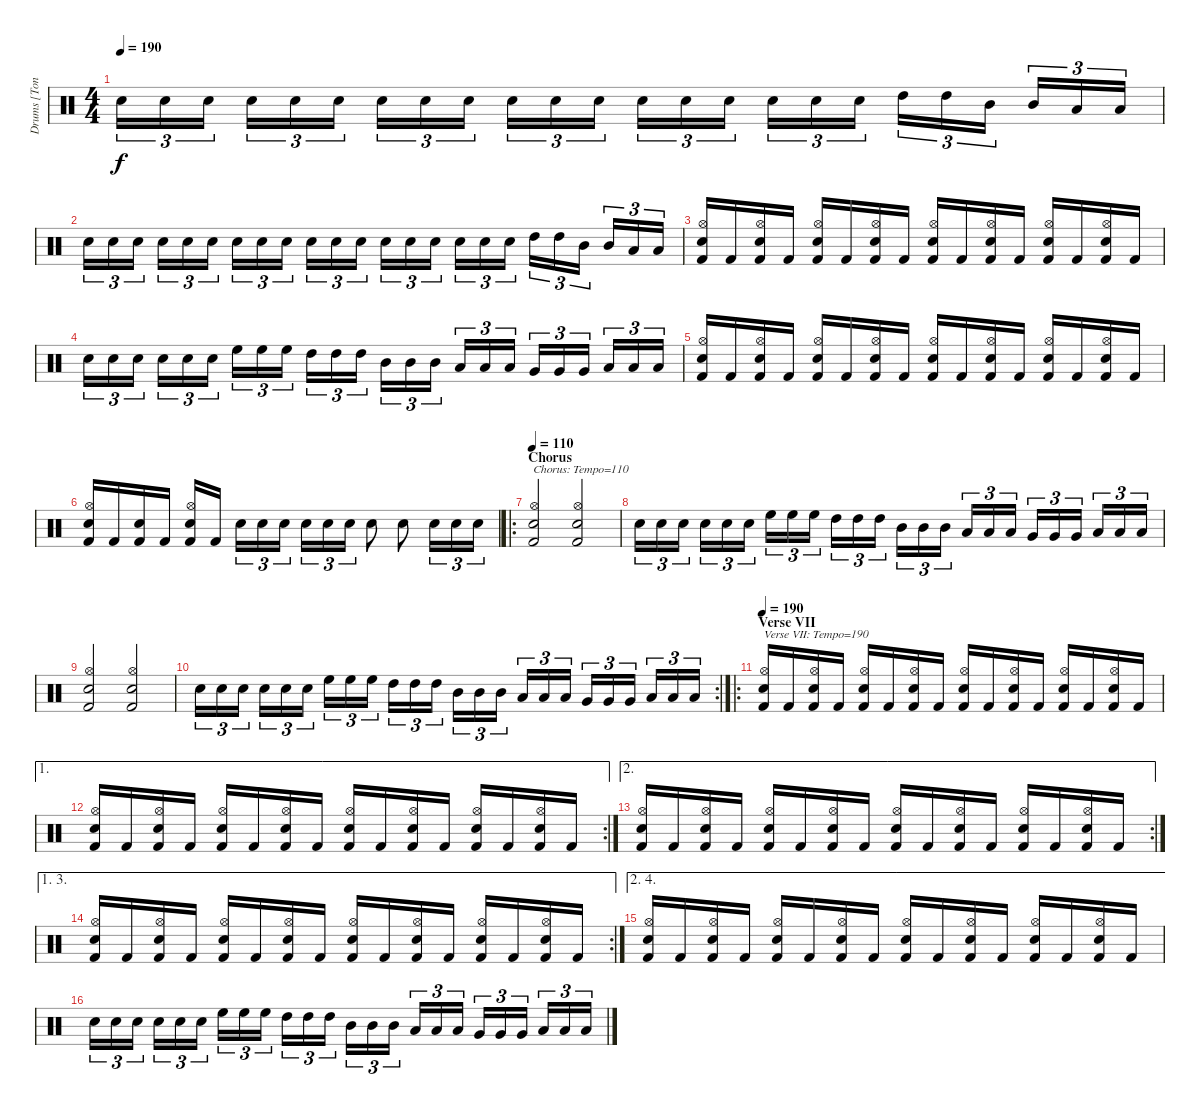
\track ("Drums [Tony Laureano]" "Drums [Ton") {instrument percussion}
\staff {score}
\articulation defaults
\ts (4 4)
\tempo 190
\clef neutral
\ks c "Electric Snare (hit)".16{tu (3 2) dy f} "Electric Snare (hit)".16{tu (3 2)} "Electric Snare (hit)".16{tu (3 2)} "Electric Snare (hit)".16{tu (3 2)} "Electric Snare (hit)".16{tu (3 2)} "Electric Snare (hit)".16{tu (3 2)} "Electric Snare (hit)".16{tu (3 2)} "Electric Snare (hit)".16{tu (3 2)} "Electric Snare (hit)".16{tu (3 2)} "Electric Snare (hit)".16{tu (3 2)} "Electric Snare (hit)".16{tu (3 2)} "Electric Snare (hit)".16{tu (3 2)} "Electric Snare (hit)".16{tu (3 2)} "Electric Snare (hit)".16{tu (3 2)} "Electric Snare (hit)".16{tu (3 2)} "Electric Snare (hit)".16{tu (3 2)} "Electric Snare (hit)".16{tu (3 2)} "Electric Snare (hit)".16{tu (3 2)} "High Tom (hit)".16{tu (3 2)} "High Tom (hit)".16{tu (3 2)} "Mid Tom (hit)".16{tu (3 2)} "Mid Tom (hit)".16{tu (3 2)} "Low Tom (hit)".16{tu (3 2)} "Low Tom (hit)".16{tu (3 2)}
|
"Electric Snare (hit)".16{tu (3 2)} "Electric Snare (hit)".16{tu (3 2)} "Electric Snare (hit)".16{tu (3 2)} "Electric Snare (hit)".16{tu (3 2)} "Electric Snare (hit)".16{tu (3 2)} "Electric Snare (hit)".16{tu (3 2)} "Electric Snare (hit)".16{tu (3 2)} "Electric Snare (hit)".16{tu (3 2)} "Electric Snare (hit)".16{tu (3 2)} "Electric Snare (hit)".16{tu (3 2)} "Electric Snare (hit)".16{tu (3 2)} "Electric Snare (hit)".16{tu (3 2)} "Electric Snare (hit)".16{tu (3 2)} "Electric Snare (hit)".16{tu (3 2)} "Electric Snare (hit)".16{tu (3 2)} "Electric Snare (hit)".16{tu (3 2)} "Electric Snare (hit)".16{tu (3 2)} "Electric Snare (hit)".16{tu (3 2)} "High Tom (hit)".16{tu (3 2)} "High Tom (hit)".16{tu (3 2)} "Mid Tom (hit)".16{tu (3 2)} "Mid Tom (hit)".16{tu (3 2)} "Low Tom (hit)".16{tu (3 2)} "Low Tom (hit)".16{tu (3 2)} |
("Hi-Hat (open)" "Electric Snare (hit)" "Kick (hit) 2").16 "Kick (hit) 2".16 ("Hi-Hat (open)" "Electric Snare (hit)" "Kick (hit) 2").16 "Kick (hit) 2".16 ("Hi-Hat (open)" "Electric Snare (hit)" "Kick (hit) 2").16 "Kick (hit) 2".16 ("Hi-Hat (open)" "Electric Snare (hit)" "Kick (hit) 2").16 "Kick (hit) 2".16 ("Hi-Hat (open)" "Electric Snare (hit)" "Kick (hit) 2").16 "Kick (hit) 2".16 ("Hi-Hat (open)" "Electric Snare (hit)" "Kick (hit) 2").16 "Kick (hit) 2".16 ("Hi-Hat (open)" "Electric Snare (hit)" "Kick (hit) 2").16 "Kick (hit) 2".16 ("Hi-Hat (open)" "Electric Snare (hit)" "Kick (hit) 2").16 "Kick (hit) 2".16 |
"Electric Snare (hit)".16{tu (3 2)} "Electric Snare (hit)".16{tu (3 2)} "Electric Snare (hit)".16{tu (3 2)} "Electric Snare (hit)".16{tu (3 2)} "Electric Snare (hit)".16{tu (3 2)} "Electric Snare (hit)".16{tu (3 2)} "High Floor Tom (hit)".16{tu (3 2)} "High Floor Tom (hit)".16{tu (3 2)} "High Floor Tom (hit)".16{tu (3 2)} "High Tom (hit)".16{tu (3 2)} "High Tom (hit)".16{tu (3 2)} "High Tom (hit)".16{tu (3 2)} "Mid Tom (hit)".16{tu (3 2)} "Mid Tom (hit)".16{tu (3 2)} "Mid Tom (hit)".16{tu (3 2)} "Low Tom (hit)".16{tu (3 2)} "Low Tom (hit)".16{tu (3 2)} "Low Tom (hit)".16{tu (3 2)} "Very Low Tom (hit)".16{tu (3 2)} "Very Low Tom (hit)".16{tu (3 2)} "Very Low Tom (hit)".16{tu (3 2)} "Low Floor Tom (hit)".16{tu (3 2)} "Low Floor Tom (hit)".16{tu (3 2)} "Low Floor Tom (hit)".16{tu (3 2)} |
("Hi-Hat (open)" "Electric Snare (hit)" "Kick (hit) 2").16 "Kick (hit) 2".16 ("Hi-Hat (open)" "Electric Snare (hit)" "Kick (hit) 2").16 "Kick (hit) 2".16 ("Hi-Hat (open)" "Electric Snare (hit)" "Kick (hit) 2").16 "Kick (hit) 2".16 ("Hi-Hat (open)" "Electric Snare (hit)" "Kick (hit) 2").16 "Kick (hit) 2".16 ("Hi-Hat (open)" "Electric Snare (hit)" "Kick (hit) 2").16 "Kick (hit) 2".16 ("Hi-Hat (open)" "Electric Snare (hit)" "Kick (hit) 2").16 "Kick (hit) 2".16 ("Hi-Hat (open)" "Electric Snare (hit)" "Kick (hit) 2").16 "Kick (hit) 2".16 ("Hi-Hat (open)" "Electric Snare (hit)" "Kick (hit) 2").16 "Kick (hit) 2".16 |
("Hi-Hat (open)" "Electric Snare (hit)" "Kick (hit) 2").16 "Kick (hit) 2".16 ("Electric Snare (hit)" "Kick (hit) 2").16 "Kick (hit) 2".16 ("Hi-Hat (open)" "Electric Snare (hit)" "Kick (hit) 2").16 "Kick (hit) 2".16 "Electric Snare (hit)".16{tu (3 2)} "Electric Snare (hit)".16{tu (3 2)} "Electric Snare (hit)".16{tu (3 2)} "Electric Snare (hit)".16{tu (3 2)} "Electric Snare (hit)".16{tu (3 2)} "Electric Snare (hit)".16{tu (3 2)} "Electric Snare (hit)".8 "Electric Snare (hit)".8 "Electric Snare (hit)".16{tu (3 2)} "Electric Snare (hit)".16{tu (3 2)} "Electric Snare (hit)".16{tu (3 2)} |
\ro
\section ("" "Chorus")
\tempo 110
("Hi-Hat (open)" "Electric Snare (hit)" "Kick (hit) 2").2{txt "Chorus: Tempo=110"} ("Hi-Hat (open)" "Electric Snare (hit)" "Kick (hit) 2").2 |
"Electric Snare (hit)".16{tu (3 2)} "Electric Snare (hit)".16{tu (3 2)} "Electric Snare (hit)".16{tu (3 2)} "Electric Snare (hit)".16{tu (3 2)} "Electric Snare (hit)".16{tu (3 2)} "Electric Snare (hit)".16{tu (3 2)} "High Floor Tom (hit)".16{tu (3 2)} "High Floor Tom (hit)".16{tu (3 2)} "High Floor Tom (hit)".16{tu (3 2)} "High Tom (hit)".16{tu (3 2)} "High Tom (hit)".16{tu (3 2)} "High Tom (hit)".16{tu (3 2)} "Mid Tom (hit)".16{tu (3 2)} "Mid Tom (hit)".16{tu (3 2)} "Mid Tom (hit)".16{tu (3 2)} "Low Tom (hit)".16{tu (3 2)} "Low Tom (hit)".16{tu (3 2)} "Low Tom (hit)".16{tu (3 2)} "Very Low Tom (hit)".16{tu (3 2)} "Very Low Tom (hit)".16{tu (3 2)} "Very Low Tom (hit)".16{tu (3 2)} "Low Floor Tom (hit)".16{tu (3 2)} "Low Floor Tom (hit)".16{tu (3 2)} "Low Floor Tom (hit)".16{tu (3 2)} |
("Hi-Hat (open)" "Electric Snare (hit)" "Kick (hit) 2").2 ("Hi-Hat (open)" "Electric Snare (hit)" "Kick (hit) 2").2 |
\rc 2 "Electric Snare (hit)".16{tu (3 2)} "Electric Snare (hit)".16{tu (3 2)} "Electric Snare (hit)".16{tu (3 2)} "Electric Snare (hit)".16{tu (3 2)} "Electric Snare (hit)".16{tu (3 2)} "Electric Snare (hit)".16{tu (3 2)} "High Floor Tom (hit)".16{tu (3 2)} "High Floor Tom (hit)".16{tu (3 2)} "High Floor Tom (hit)".16{tu (3 2)} "High Tom (hit)".16{tu (3 2)} "High Tom (hit)".16{tu (3 2)} "High Tom (hit)".16{tu (3 2)} "Mid Tom (hit)".16{tu (3 2)} "Mid Tom (hit)".16{tu (3 2)} "Mid Tom (hit)".16{tu (3 2)} "Low Tom (hit)".16{tu (3 2)} "Low Tom (hit)".16{tu (3 2)} "Low Tom (hit)".16{tu (3 2)} "Very Low Tom (hit)".16{tu (3 2)} "Very Low Tom (hit)".16{tu (3 2)} "Very Low Tom (hit)".16{tu (3 2)} "Low Floor Tom (hit)".16{tu (3 2)} "Low Floor Tom (hit)".16{tu (3 2)} "Low Floor Tom (hit)".16{tu (3 2)}
|
\ro
\section ("" "Verse VII")
\tempo 190
("Hi-Hat (open)" "Electric Snare (hit)" "Kick (hit) 2").16{txt "Verse VII: Tempo=190"} "Kick (hit) 2".16 ("Hi-Hat (open)" "Electric Snare (hit)" "Kick (hit) 2").16 "Kick (hit) 2".16 ("Hi-Hat (open)" "Electric Snare (hit)" "Kick (hit) 2").16 "Kick (hit) 2".16 ("Hi-Hat (open)" "Electric Snare (hit)" "Kick (hit) 2").16 "Kick (hit) 2".16 ("Hi-Hat (open)" "Electric Snare (hit)" "Kick (hit) 2").16 "Kick (hit) 2".16 ("Hi-Hat (open)" "Electric Snare (hit)" "Kick (hit) 2").16 "Kick (hit) 2".16 ("Hi-Hat (open)" "Electric Snare (hit)" "Kick (hit) 2").16 "Kick (hit) 2".16 ("Hi-Hat (open)" "Electric Snare (hit)" "Kick (hit) 2").16 "Kick (hit) 2".16 |
\ae 1
\rc 2
("Hi-Hat (open)" "Electric Snare (hit)" "Kick (hit) 2").16 "Kick (hit) 2".16 ("Hi-Hat (open)" "Electric Snare (hit)" "Kick (hit) 2").16 "Kick (hit) 2".16 ("Hi-Hat (open)" "Electric Snare (hit)" "Kick (hit) 2").16 "Kick (hit) 2".16 ("Hi-Hat (open)" "Electric Snare (hit)" "Kick (hit) 2").16 "Kick (hit) 2".16 ("Hi-Hat (open)" "Electric Snare (hit)" "Kick (hit) 2").16 "Kick (hit) 2".16 ("Hi-Hat (open)" "Electric Snare (hit)" "Kick (hit) 2").16 "Kick (hit) 2".16 ("Hi-Hat (open)" "Electric Snare (hit)" "Kick (hit) 2").16 "Kick (hit) 2".16 ("Hi-Hat (open)" "Electric Snare (hit)" "Kick (hit) 2").16 "Kick (hit) 2".16 |
\ae 2
\rc 2
("Hi-Hat (open)" "Electric Snare (hit)" "Kick (hit) 2").16 "Kick (hit) 2".16 ("Hi-Hat (open)" "Electric Snare (hit)" "Kick (hit) 2").16 "Kick (hit) 2".16 ("Hi-Hat (open)" "Electric Snare (hit)" "Kick (hit) 2").16 "Kick (hit) 2".16 ("Hi-Hat (open)" "Electric Snare (hit)" "Kick (hit) 2").16 "Kick (hit) 2".16 ("Hi-Hat (open)" "Electric Snare (hit)" "Kick (hit) 2").16 "Kick (hit) 2".16 ("Hi-Hat (open)" "Electric Snare (hit)" "Kick (hit) 2").16 "Kick (hit) 2".16 ("Hi-Hat (open)" "Electric Snare (hit)" "Kick (hit) 2").16 "Kick (hit) 2".16 ("Hi-Hat (open)" "Electric Snare (hit)" "Kick (hit) 2").16 "Kick (hit) 2".16 |
\ae (1 3)
\rc 2
("Hi-Hat (open)" "Electric Snare (hit)" "Kick (hit) 2").16 "Kick (hit) 2".16 ("Hi-Hat (open)" "Electric Snare (hit)" "Kick (hit) 2").16 "Kick (hit) 2".16 ("Hi-Hat (open)" "Electric Snare (hit)" "Kick (hit) 2").16 "Kick (hit) 2".16 ("Hi-Hat (open)" "Electric Snare (hit)" "Kick (hit) 2").16 "Kick (hit) 2".16 ("Hi-Hat (open)" "Electric Snare (hit)" "Kick (hit) 2").16 "Kick (hit) 2".16 ("Hi-Hat (open)" "Electric Snare (hit)" "Kick (hit) 2").16 "Kick (hit) 2".16 ("Hi-Hat (open)" "Electric Snare (hit)" "Kick (hit) 2").16 "Kick (hit) 2".16 ("Hi-Hat (open)" "Electric Snare (hit)" "Kick (hit) 2").16 "Kick (hit) 2".16 |
\ae (2 4)
("Hi-Hat (open)" "Electric Snare (hit)" "Kick (hit) 2").16 "Kick (hit) 2".16 ("Hi-Hat (open)" "Electric Snare (hit)" "Kick (hit) 2").16 "Kick (hit) 2".16 ("Hi-Hat (open)" "Electric Snare (hit)" "Kick (hit) 2").16 "Kick (hit) 2".16 ("Hi-Hat (open)" "Electric Snare (hit)" "Kick (hit) 2").16 "Kick (hit) 2".16 ("Hi-Hat (open)" "Electric Snare (hit)" "Kick (hit) 2").16 "Kick (hit) 2".16 ("Hi-Hat (open)" "Electric Snare (hit)" "Kick (hit) 2").16 "Kick (hit) 2".16 ("Hi-Hat (open)" "Electric Snare (hit)" "Kick (hit) 2").16 "Kick (hit) 2".16 ("Hi-Hat (open)" "Electric Snare (hit)" "Kick (hit) 2").16 "Kick (hit) 2".16 |
"Electric Snare (hit)".16{tu (3 2)} "Electric Snare (hit)".16{tu (3 2)} "Electric Snare (hit)".16{tu (3 2)} "Electric Snare (hit)".16{tu (3 2)} "Electric Snare (hit)".16{tu (3 2)} "Electric Snare (hit)".16{tu (3 2)} "High Floor Tom (hit)".16{tu (3 2)} "High Floor Tom (hit)".16{tu (3 2)} "High Floor Tom (hit)".16{tu (3 2)} "High Tom (hit)".16{tu (3 2)} "High Tom (hit)".16{tu (3 2)} "High Tom (hit)".16{tu (3 2)} "Mid Tom (hit)".16{tu (3 2)} "Mid Tom (hit)".16{tu (3 2)} "Mid Tom (hit)".16{tu (3 2)} "Low Tom (hit)".16{tu (3 2)} "Low Tom (hit)".16{tu (3 2)} "Low Tom (hit)".16{tu (3 2)} "Very Low Tom (hit)".16{tu (3 2)} "Very Low Tom (hit)".16{tu (3 2)} "Very Low Tom (hit)".16{tu (3 2)} "Low Floor Tom (hit)".16{tu (3 2)} "Low Floor Tom (hit)".16{tu (3 2)} "Low Floor Tom (hit)".16{tu (3 2)}
